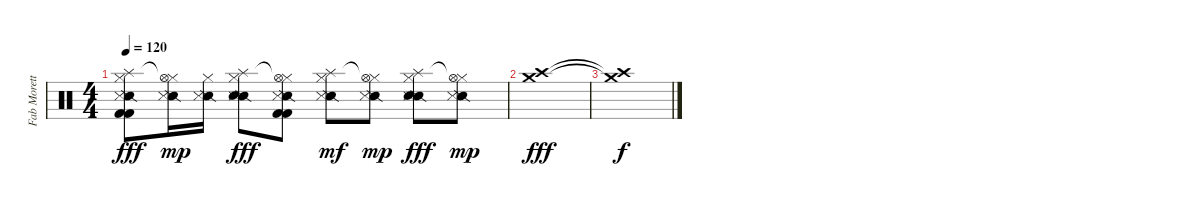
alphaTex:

\track ("Fab Moretti - Drums" "Fab Morett") {instrument percussion}
\staff {score}
\articulation defaults
\ts (4 4)
\tempo 120
\clef neutral
\ks c
("Snare (side stick) 2" "Metronome (hit)" "Hi-Hat (closed)" "Splash (hit)" "Kick (hit) 2" "Kick (hit) 2").8{dy fff} ("Snare (side stick) 2" "Metronome (hit)" "Hi-Hat (closed)" "Hi-Hat (open)"{t}).16{dy mp} ("Snare (side stick) 2" "Metronome (hit)" "Hi-Hat (closed)").16 ("Snare (side stick) 2" "Metronome (hit)" "Hi-Hat (closed)" "Splash (hit)" "Electric Snare (hit)").8{dy fff} ("Snare (side stick) 2" "Metronome (hit)" "Hi-Hat (closed)" "Hi-Hat (open)"{t} "Kick (hit) 2" "Kick (hit) 2").8 ("Snare (side stick) 2" "Metronome (hit)" "Hi-Hat (closed)" "Splash (hit)").8{dy mf} ("Snare (side stick) 2" "Metronome (hit)" "Hi-Hat (closed)" "Hi-Hat (open)"{t}).8{dy mp} ("Snare (side stick) 2" "Metronome (hit)" "Hi-Hat (closed)" "Splash (hit)" "Electric Snare (hit)").8{dy fff} ("Snare (side stick) 2" "Metronome (hit)" "Hi-Hat (closed)" "Hi-Hat (open)"{t}).8{dy mp} |
("Crash high (hit)" "Crash medium (hit)").1{dy fff} |
("Crash high (hit)"{t} "Crash medium (hit)"{t}).1{dy f}
